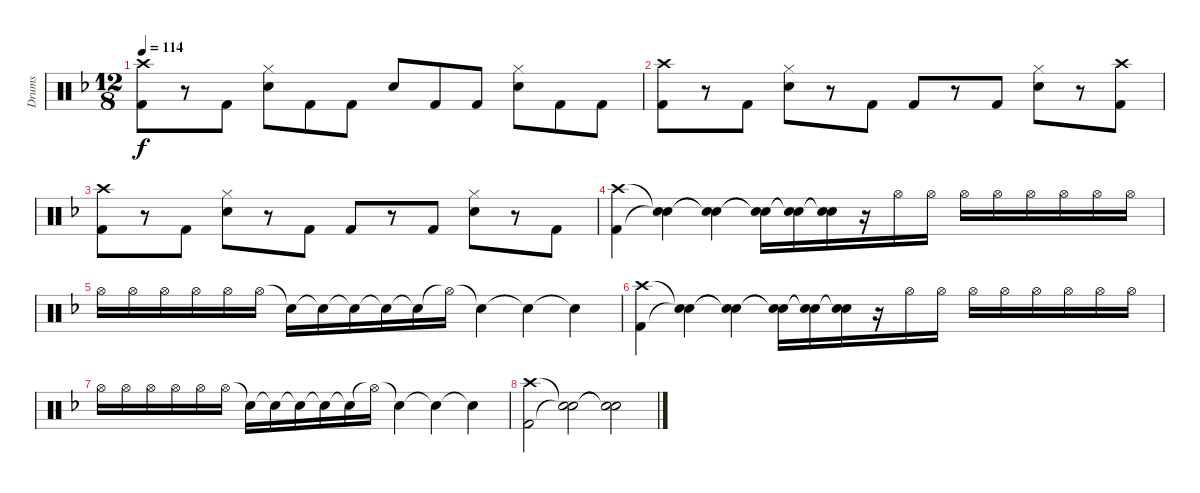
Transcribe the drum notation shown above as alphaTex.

\track ("Drums" "Drums") {instrument percussion}
\staff {score}
\articulation defaults
\ts (12 8)
\tempo 114
\clef neutral
\ks f
("Crash high (hit)" "Kick (hit) 2").8{dy f} r.8 "Kick (hit) 2".8 ("Hi-Hat (closed)" "Electric Snare (hit)").8 "Kick (hit) 2".8 "Kick (hit) 2".8 "Electric Snare (hit)".8 "Kick (hit) 2".8 "Kick (hit) 2".8 ("Hi-Hat (closed)" "Electric Snare (hit)").8 "Kick (hit) 2".8 "Kick (hit) 2".8 |
("Crash high (hit)" "Kick (hit) 2").8 r.8 "Kick (hit) 2".8 ("Hi-Hat (closed)" "Electric Snare (hit)").8 r.8 "Kick (hit) 2".8 "Kick (hit) 2".8 r.8 "Kick (hit) 2".8 ("Hi-Hat (closed)" "Electric Snare (hit)").8 r.8 ("Crash high (hit)" "Kick (hit) 2").8 |
("Crash high (hit)" "Kick (hit) 2").8 r.8 "Kick (hit) 2".8 ("Hi-Hat (closed)" "Electric Snare (hit)").8 r.8 "Kick (hit) 2".8 "Kick (hit) 2".8 r.8 "Kick (hit) 2".8 ("Hi-Hat (closed)" "Electric Snare (hit)").8 r.8 "Kick (hit) 2".8 |
("Crash high (hit)" "Kick (hit) 2").4 ("Snare (hit)"{t} "Snare (hit)"{t}).4 ("Snare (hit)"{t} "Snare (hit)"{t}).4 ("Snare (hit)"{t} "Snare (hit)"{t}).16 ("Snare (hit)"{t} "Snare (hit)"{t}).16 ("Snare (hit)"{t} "Snare (hit)"{t}).16 r.16{volume 0} "Hi-Hat (open)".16{volume 6} "Hi-Hat (open)".16 "Hi-Hat (open)".16 "Hi-Hat (open)".16 "Hi-Hat (open)".16 "Hi-Hat (open)".16 "Hi-Hat (open)".16 "Hi-Hat (open)".16 |
"Hi-Hat (open)".16 "Hi-Hat (open)".16 "Hi-Hat (open)".16 "Hi-Hat (open)".16 "Hi-Hat (open)".16 "Hi-Hat (open)".16 "Snare (hit)"{t}.16 "Snare (hit)"{t}.16 "Snare (hit)"{t}.16 "Snare (hit)"{t}.16 "Snare (hit)"{t}.16 "Hi-Hat (open)"{t}.16 "Snare (hit)"{t}.4 "Snare (hit)"{t}.4 "Snare (hit)"{t}.4 |
("Crash high (hit)" "Kick (hit) 2").4 ("Snare (hit)"{t} "Snare (hit)"{t}).4 ("Snare (hit)"{t} "Snare (hit)"{t}).4 ("Snare (hit)"{t} "Snare (hit)"{t}).16 ("Snare (hit)"{t} "Snare (hit)"{t}).16 ("Snare (hit)"{t} "Snare (hit)"{t}).16 r.16{volume 0} "Hi-Hat (open)".16{volume 6} "Hi-Hat (open)".16 "Hi-Hat (open)".16 "Hi-Hat (open)".16 "Hi-Hat (open)".16 "Hi-Hat (open)".16 "Hi-Hat (open)".16 "Hi-Hat (open)".16 |
"Hi-Hat (open)".16 "Hi-Hat (open)".16 "Hi-Hat (open)".16 "Hi-Hat (open)".16 "Hi-Hat (open)".16 "Hi-Hat (open)".16 "Snare (hit)"{t}.16 "Snare (hit)"{t}.16 "Snare (hit)"{t}.16 "Snare (hit)"{t}.16 "Snare (hit)"{t}.16 "Hi-Hat (open)"{t}.16 "Snare (hit)"{t}.4 "Snare (hit)"{t}.4 "Snare (hit)"{t}.4 |
("Crash high (hit)" "Kick (hit) 2").2 ("Snare (hit)"{t} "Snare (hit)"{t}).2 ("Snare (hit)"{t} "Snare (hit)"{t}).2
